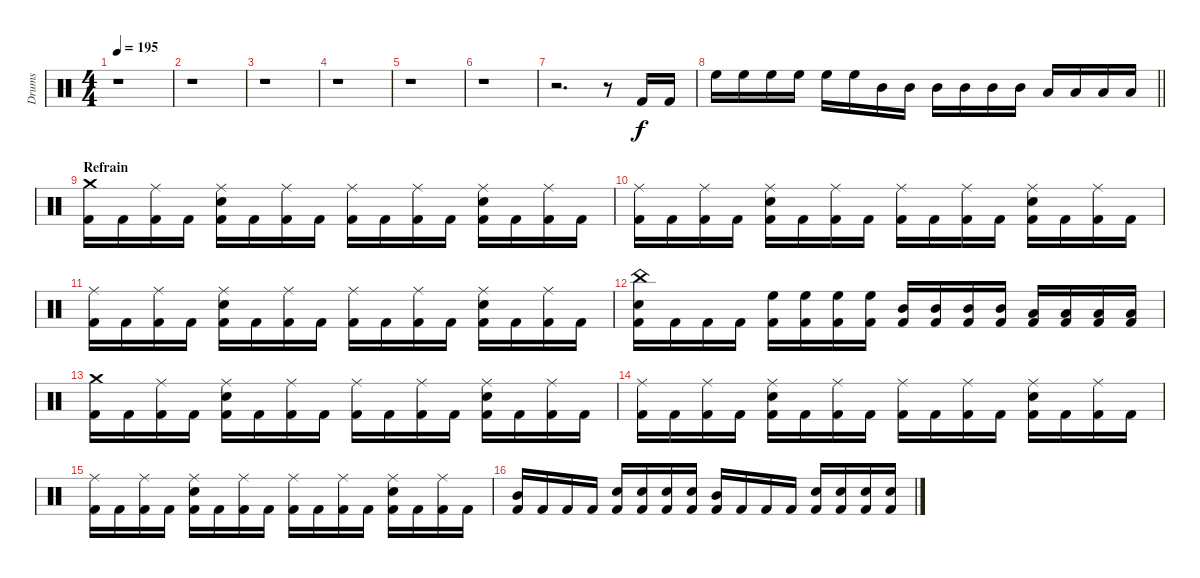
\track ("Drums" "Drums") {instrument percussion}
\staff {score}
\articulation defaults
\ts (4 4)
\tempo 195
\clef neutral
\ks c
r.1{dy f} |
r.1 |
r.1 |
r.1 |
r.1 |
r.1 |
r.2{d} r.8 "Kick (hit) 2".16 "Kick (hit) 2".16 |
\barLineRight lightlight "High Floor Tom (hit)".16 "High Floor Tom (hit)".16 "High Floor Tom (hit)".16 "High Floor Tom (hit)".16 "High Floor Tom (hit)".16 "High Floor Tom (hit)".16 "Mid Tom (hit)".16 "Mid Tom (hit)".16 "Mid Tom (hit)".16 "Mid Tom (hit)".16 "Mid Tom (hit)".16 "Mid Tom (hit)".16 "Low Tom (hit)".16 "Low Tom (hit)".16 "Low Tom (hit)".16 "Low Tom (hit)".16
|
\section ("" "Refrain")
("Crash medium (hit)" "Kick (hit) 2").16 "Kick (hit) 2".16 ("Ride (middle)" "Kick (hit) 2").16 "Kick (hit) 2".16 ("Ride (middle)" "Snare (hit) 2" "Kick (hit) 2").16 "Kick (hit) 2".16 ("Ride (middle)" "Kick (hit) 2").16 "Kick (hit) 2".16 ("Ride (middle)" "Kick (hit) 2").16 "Kick (hit) 2".16 ("Ride (middle)" "Kick (hit) 2").16 "Kick (hit) 2".16 ("Ride (middle)" "Snare (hit) 2" "Kick (hit) 2").16 "Kick (hit) 2".16 ("Ride (middle)" "Kick (hit) 2").16 "Kick (hit) 2".16 |
("Ride (middle)" "Kick (hit) 2").16 "Kick (hit) 2".16 ("Ride (middle)" "Kick (hit) 2").16 "Kick (hit) 2".16 ("Ride (middle)" "Snare (hit) 2" "Kick (hit) 2").16 "Kick (hit) 2".16 ("Ride (middle)" "Kick (hit) 2").16 "Kick (hit) 2".16 ("Ride (middle)" "Kick (hit) 2").16 "Kick (hit) 2".16 ("Ride (middle)" "Kick (hit) 2").16 "Kick (hit) 2".16 ("Ride (middle)" "Snare (hit) 2" "Kick (hit) 2").16 "Kick (hit) 2".16 ("Ride (middle)" "Kick (hit) 2").16 "Kick (hit) 2".16 |
("Ride (middle)" "Kick (hit) 2").16 "Kick (hit) 2".16 ("Ride (middle)" "Kick (hit) 2").16 "Kick (hit) 2".16 ("Ride (middle)" "Snare (hit) 2" "Kick (hit) 2").16 "Kick (hit) 2".16 ("Ride (middle)" "Kick (hit) 2").16 "Kick (hit) 2".16 ("Ride (middle)" "Kick (hit) 2").16 "Kick (hit) 2".16 ("Ride (middle)" "Kick (hit) 2").16 "Kick (hit) 2".16 ("Ride (middle)" "Snare (hit) 2" "Kick (hit) 2").16 "Kick (hit) 2".16 ("Ride (middle)" "Kick (hit) 2").16 "Kick (hit) 2".16 |
("China (hit)" "Snare (hit) 2" "Kick (hit) 2").16 "Kick (hit) 2".16 "Kick (hit) 2".16 "Kick (hit) 2".16 ("High Floor Tom (hit)" "Kick (hit) 2").16 ("High Floor Tom (hit)" "Kick (hit) 2").16 ("High Floor Tom (hit)" "Kick (hit) 2").16 ("High Floor Tom (hit)" "Kick (hit) 2").16 ("Mid Tom (hit)" "Kick (hit) 2").16 ("Mid Tom (hit)" "Kick (hit) 2").16 ("Mid Tom (hit)" "Kick (hit) 2").16 ("Mid Tom (hit)" "Kick (hit) 2").16 ("Low Tom (hit)" "Kick (hit) 2").16 ("Low Tom (hit)" "Kick (hit) 2").16 ("Low Tom (hit)" "Kick (hit) 2").16 ("Low Tom (hit)" "Kick (hit) 2").16 |
("Crash medium (hit)" "Kick (hit) 2").16 "Kick (hit) 2".16 ("Ride (middle)" "Kick (hit) 2").16 "Kick (hit) 2".16 ("Ride (middle)" "Snare (hit) 2" "Kick (hit) 2").16 "Kick (hit) 2".16 ("Ride (middle)" "Kick (hit) 2").16 "Kick (hit) 2".16 ("Ride (middle)" "Kick (hit) 2").16 "Kick (hit) 2".16 ("Ride (middle)" "Kick (hit) 2").16 "Kick (hit) 2".16 ("Ride (middle)" "Snare (hit) 2" "Kick (hit) 2").16 "Kick (hit) 2".16 ("Ride (middle)" "Kick (hit) 2").16 "Kick (hit) 2".16 |
("Ride (middle)" "Kick (hit) 2").16 "Kick (hit) 2".16 ("Ride (middle)" "Kick (hit) 2").16 "Kick (hit) 2".16 ("Ride (middle)" "Snare (hit) 2" "Kick (hit) 2").16 "Kick (hit) 2".16 ("Ride (middle)" "Kick (hit) 2").16 "Kick (hit) 2".16 ("Ride (middle)" "Kick (hit) 2").16 "Kick (hit) 2".16 ("Ride (middle)" "Kick (hit) 2").16 "Kick (hit) 2".16 ("Ride (middle)" "Snare (hit) 2" "Kick (hit) 2").16 "Kick (hit) 2".16 ("Ride (middle)" "Kick (hit) 2").16 "Kick (hit) 2".16 |
("Ride (middle)" "Kick (hit) 2").16 "Kick (hit) 2".16 ("Ride (middle)" "Kick (hit) 2").16 "Kick (hit) 2".16 ("Ride (middle)" "Snare (hit) 2" "Kick (hit) 2").16 "Kick (hit) 2".16 ("Ride (middle)" "Kick (hit) 2").16 "Kick (hit) 2".16 ("Ride (middle)" "Kick (hit) 2").16 "Kick (hit) 2".16 ("Ride (middle)" "Kick (hit) 2").16 "Kick (hit) 2".16 ("Ride (middle)" "Snare (hit) 2" "Kick (hit) 2").16 "Kick (hit) 2".16 ("Ride (middle)" "Kick (hit) 2").16 "Kick (hit) 2".16 |
("Mid Tom (hit)" "Kick (hit) 2").16 "Kick (hit) 2".16 "Kick (hit) 2".16 "Kick (hit) 2".16 ("Snare (hit) 2" "Kick (hit) 2").16 ("Snare (hit) 2" "Kick (hit) 2").16 ("Snare (hit) 2" "Kick (hit) 2").16 ("Snare (hit) 2" "Kick (hit) 2").16 ("Mid Tom (hit)" "Kick (hit) 2").16 "Kick (hit) 2".16 "Kick (hit) 2".16 "Kick (hit) 2".16 ("Snare (hit) 2" "Kick (hit) 2").16 ("Snare (hit) 2" "Kick (hit) 2").16 ("Snare (hit) 2" "Kick (hit) 2").16 ("Snare (hit) 2" "Kick (hit) 2").16
